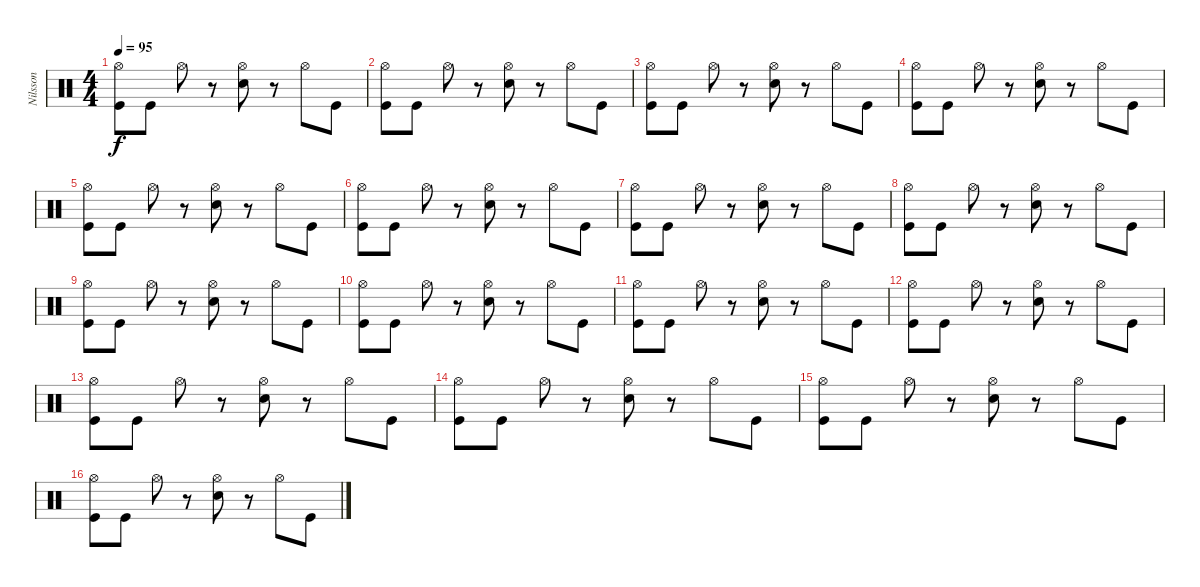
\track ("Nilsson" "Nilsson") {instrument percussion}
\staff {score}
\articulation defaults
\ts (4 4)
\tempo 95
\clef neutral
\ks c
("Hi-Hat (open)" "Kick (hit)").8{dy f} "Kick (hit)".8 "Hi-Hat (open)".8 r.8 ("Hi-Hat (open)" "Electric Snare (hit)").8 r.8 "Hi-Hat (open)".8 "Kick (hit)".8 |
("Hi-Hat (open)" "Kick (hit)").8 "Kick (hit)".8 "Hi-Hat (open)".8 r.8 ("Hi-Hat (open)" "Electric Snare (hit)").8 r.8 "Hi-Hat (open)".8 "Kick (hit)".8 |
("Hi-Hat (open)" "Kick (hit)").8 "Kick (hit)".8 "Hi-Hat (open)".8 r.8 ("Hi-Hat (open)" "Electric Snare (hit)").8 r.8 "Hi-Hat (open)".8 "Kick (hit)".8 |
("Hi-Hat (open)" "Kick (hit)").8 "Kick (hit)".8 "Hi-Hat (open)".8 r.8 ("Hi-Hat (open)" "Electric Snare (hit)").8 r.8 "Hi-Hat (open)".8 "Kick (hit)".8 |
("Hi-Hat (open)" "Kick (hit)").8 "Kick (hit)".8 "Hi-Hat (open)".8 r.8 ("Hi-Hat (open)" "Electric Snare (hit)").8 r.8 "Hi-Hat (open)".8 "Kick (hit)".8 |
("Hi-Hat (open)" "Kick (hit)").8 "Kick (hit)".8 "Hi-Hat (open)".8 r.8 ("Hi-Hat (open)" "Electric Snare (hit)").8 r.8 "Hi-Hat (open)".8 "Kick (hit)".8 |
("Hi-Hat (open)" "Kick (hit)").8 "Kick (hit)".8 "Hi-Hat (open)".8 r.8 ("Hi-Hat (open)" "Electric Snare (hit)").8 r.8 "Hi-Hat (open)".8 "Kick (hit)".8 |
("Hi-Hat (open)" "Kick (hit)").8 "Kick (hit)".8 "Hi-Hat (open)".8 r.8 ("Hi-Hat (open)" "Electric Snare (hit)").8 r.8 "Hi-Hat (open)".8 "Kick (hit)".8 |
("Hi-Hat (open)" "Kick (hit)").8 "Kick (hit)".8 "Hi-Hat (open)".8 r.8 ("Hi-Hat (open)" "Electric Snare (hit)").8 r.8 "Hi-Hat (open)".8 "Kick (hit)".8 |
("Hi-Hat (open)" "Kick (hit)").8 "Kick (hit)".8 "Hi-Hat (open)".8 r.8 ("Hi-Hat (open)" "Electric Snare (hit)").8 r.8 "Hi-Hat (open)".8 "Kick (hit)".8 |
("Hi-Hat (open)" "Kick (hit)").8 "Kick (hit)".8 "Hi-Hat (open)".8 r.8 ("Hi-Hat (open)" "Electric Snare (hit)").8 r.8 "Hi-Hat (open)".8 "Kick (hit)".8 |
("Hi-Hat (open)" "Kick (hit)").8 "Kick (hit)".8 "Hi-Hat (open)".8 r.8 ("Hi-Hat (open)" "Electric Snare (hit)").8 r.8 "Hi-Hat (open)".8 "Kick (hit)".8 |
("Hi-Hat (open)" "Kick (hit)").8 "Kick (hit)".8 "Hi-Hat (open)".8 r.8 ("Hi-Hat (open)" "Electric Snare (hit)").8 r.8 "Hi-Hat (open)".8 "Kick (hit)".8 |
("Hi-Hat (open)" "Kick (hit)").8 "Kick (hit)".8 "Hi-Hat (open)".8 r.8 ("Hi-Hat (open)" "Electric Snare (hit)").8 r.8 "Hi-Hat (open)".8 "Kick (hit)".8 |
("Hi-Hat (open)" "Kick (hit)").8 "Kick (hit)".8 "Hi-Hat (open)".8 r.8 ("Hi-Hat (open)" "Electric Snare (hit)").8 r.8 "Hi-Hat (open)".8 "Kick (hit)".8 |
("Hi-Hat (open)" "Kick (hit)").8 "Kick (hit)".8 "Hi-Hat (open)".8 r.8 ("Hi-Hat (open)" "Electric Snare (hit)").8 r.8 "Hi-Hat (open)".8 "Kick (hit)".8
